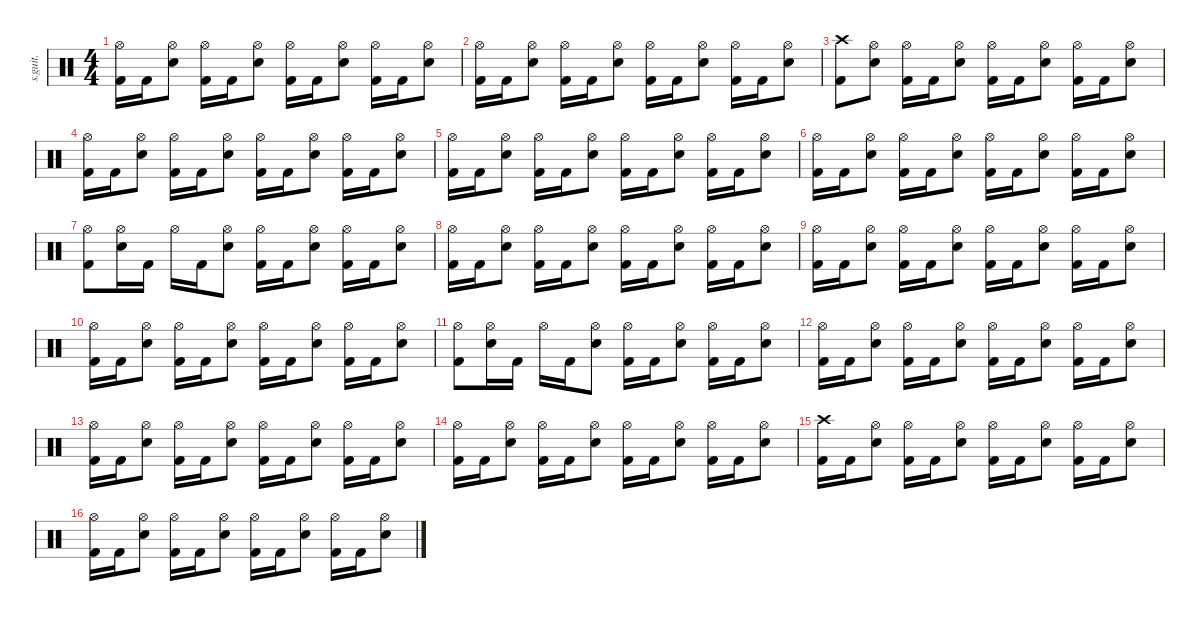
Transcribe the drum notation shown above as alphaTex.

\defaultSystemsLayout 4
\hideDynamics
\bracketExtendMode nobrackets
\track ("" "s.guit.") {instrument percussion}
\staff {score}
\articulation defaults
\ts (4 4)
\tempo (160 hide)
\clef neutral
\ks c
("Hi-Hat (open)" "Kick (hit) 2").16{dy f} "Kick (hit) 2".16 ("Hi-Hat (open)" "Snare (hit) 2").8 ("Hi-Hat (open)" "Kick (hit) 2").16 "Kick (hit) 2".16 ("Hi-Hat (open)" "Snare (hit) 2").8 ("Hi-Hat (open)" "Kick (hit) 2").16 "Kick (hit) 2".16 ("Hi-Hat (open)" "Snare (hit) 2").8 ("Hi-Hat (open)" "Kick (hit) 2").16 "Kick (hit) 2".16 ("Hi-Hat (open)" "Snare (hit) 2").8 |
("Hi-Hat (open)" "Kick (hit) 2").16 "Kick (hit) 2".16 ("Hi-Hat (open)" "Snare (hit) 2").8 ("Hi-Hat (open)" "Kick (hit) 2").16 "Kick (hit) 2".16 ("Hi-Hat (open)" "Snare (hit) 2").8 ("Hi-Hat (open)" "Kick (hit) 2").16 "Kick (hit) 2".16 ("Hi-Hat (open)" "Snare (hit) 2").8 ("Hi-Hat (open)" "Kick (hit) 2").16 "Kick (hit) 2".16 ("Hi-Hat (open)" "Snare (hit) 2").8 |
("Crash high (hit)" "Kick (hit) 2").8 ("Hi-Hat (open)" "Snare (hit) 2").8 ("Hi-Hat (open)" "Kick (hit) 2").16 "Kick (hit) 2".16 ("Hi-Hat (open)" "Snare (hit) 2").8 ("Hi-Hat (open)" "Kick (hit) 2").16 "Kick (hit) 2".16 ("Hi-Hat (open)" "Snare (hit) 2").8 ("Hi-Hat (open)" "Kick (hit) 2").16 "Kick (hit) 2".16 ("Hi-Hat (open)" "Snare (hit) 2").8 |
("Hi-Hat (open)" "Kick (hit) 2").16 "Kick (hit) 2".16 ("Hi-Hat (open)" "Snare (hit) 2").8 ("Hi-Hat (open)" "Kick (hit) 2").16 "Kick (hit) 2".16 ("Hi-Hat (open)" "Snare (hit) 2").8 ("Hi-Hat (open)" "Kick (hit) 2").16 "Kick (hit) 2".16 ("Hi-Hat (open)" "Snare (hit) 2").8 ("Hi-Hat (open)" "Kick (hit) 2").16 "Kick (hit) 2".16 ("Hi-Hat (open)" "Snare (hit) 2").8 |
("Hi-Hat (open)" "Kick (hit) 2").16 "Kick (hit) 2".16 ("Hi-Hat (open)" "Snare (hit) 2").8 ("Hi-Hat (open)" "Kick (hit) 2").16 "Kick (hit) 2".16 ("Hi-Hat (open)" "Snare (hit) 2").8 ("Hi-Hat (open)" "Kick (hit) 2").16 "Kick (hit) 2".16 ("Hi-Hat (open)" "Snare (hit) 2").8 ("Hi-Hat (open)" "Kick (hit) 2").16 "Kick (hit) 2".16 ("Hi-Hat (open)" "Snare (hit) 2").8 |
("Hi-Hat (open)" "Kick (hit) 2").16 "Kick (hit) 2".16 ("Hi-Hat (open)" "Snare (hit) 2").8 ("Hi-Hat (open)" "Kick (hit) 2").16 "Kick (hit) 2".16 ("Hi-Hat (open)" "Snare (hit) 2").8 ("Hi-Hat (open)" "Kick (hit) 2").16 "Kick (hit) 2".16 ("Hi-Hat (open)" "Snare (hit) 2").8 ("Hi-Hat (open)" "Kick (hit) 2").16 "Kick (hit) 2".16 ("Hi-Hat (open)" "Snare (hit) 2").8 |
("Hi-Hat (open)" "Kick (hit) 2").8 ("Hi-Hat (open)" "Snare (hit) 2").16 "Kick (hit) 2".16 "Hi-Hat (open)".16 "Kick (hit) 2".16 ("Hi-Hat (open)" "Snare (hit) 2").8 ("Hi-Hat (open)" "Kick (hit) 2").16 "Kick (hit) 2".16 ("Hi-Hat (open)" "Snare (hit) 2").8 ("Hi-Hat (open)" "Kick (hit) 2").16 "Kick (hit) 2".16 ("Hi-Hat (open)" "Snare (hit) 2").8 |
("Hi-Hat (open)" "Kick (hit) 2").16 "Kick (hit) 2".16 ("Hi-Hat (open)" "Snare (hit) 2").8 ("Hi-Hat (open)" "Kick (hit) 2").16 "Kick (hit) 2".16 ("Hi-Hat (open)" "Snare (hit) 2").8 ("Hi-Hat (open)" "Kick (hit) 2").16 "Kick (hit) 2".16 ("Hi-Hat (open)" "Snare (hit) 2").8 ("Hi-Hat (open)" "Kick (hit) 2").16 "Kick (hit) 2".16 ("Hi-Hat (open)" "Snare (hit) 2").8 |
("Hi-Hat (open)" "Kick (hit) 2").16 "Kick (hit) 2".16 ("Hi-Hat (open)" "Snare (hit) 2").8 ("Hi-Hat (open)" "Kick (hit) 2").16 "Kick (hit) 2".16 ("Hi-Hat (open)" "Snare (hit) 2").8 ("Hi-Hat (open)" "Kick (hit) 2").16 "Kick (hit) 2".16 ("Hi-Hat (open)" "Snare (hit) 2").8 ("Hi-Hat (open)" "Kick (hit) 2").16 "Kick (hit) 2".16 ("Hi-Hat (open)" "Snare (hit) 2").8 |
("Hi-Hat (open)" "Kick (hit) 2").16 "Kick (hit) 2".16 ("Hi-Hat (open)" "Snare (hit) 2").8 ("Hi-Hat (open)" "Kick (hit) 2").16 "Kick (hit) 2".16 ("Hi-Hat (open)" "Snare (hit) 2").8 ("Hi-Hat (open)" "Kick (hit) 2").16 "Kick (hit) 2".16 ("Hi-Hat (open)" "Snare (hit) 2").8 ("Hi-Hat (open)" "Kick (hit) 2").16 "Kick (hit) 2".16 ("Hi-Hat (open)" "Snare (hit) 2").8 |
("Hi-Hat (open)" "Kick (hit) 2").8 ("Hi-Hat (open)" "Snare (hit) 2").16 "Kick (hit) 2".16 "Hi-Hat (open)".16 "Kick (hit) 2".16 ("Hi-Hat (open)" "Snare (hit) 2").8 ("Hi-Hat (open)" "Kick (hit) 2").16 "Kick (hit) 2".16 ("Hi-Hat (open)" "Snare (hit) 2").8 ("Hi-Hat (open)" "Kick (hit) 2").16 "Kick (hit) 2".16 ("Hi-Hat (open)" "Snare (hit) 2").8 |
("Hi-Hat (open)" "Kick (hit) 2").16 "Kick (hit) 2".16 ("Hi-Hat (open)" "Snare (hit) 2").8 ("Hi-Hat (open)" "Kick (hit) 2").16 "Kick (hit) 2".16 ("Hi-Hat (open)" "Snare (hit) 2").8 ("Hi-Hat (open)" "Kick (hit) 2").16 "Kick (hit) 2".16 ("Hi-Hat (open)" "Snare (hit) 2").8 ("Hi-Hat (open)" "Kick (hit) 2").16 "Kick (hit) 2".16 ("Hi-Hat (open)" "Snare (hit) 2").8 |
("Hi-Hat (open)" "Kick (hit) 2").16 "Kick (hit) 2".16 ("Hi-Hat (open)" "Snare (hit) 2").8 ("Hi-Hat (open)" "Kick (hit) 2").16 "Kick (hit) 2".16 ("Hi-Hat (open)" "Snare (hit) 2").8 ("Hi-Hat (open)" "Kick (hit) 2").16 "Kick (hit) 2".16 ("Hi-Hat (open)" "Snare (hit) 2").8 ("Hi-Hat (open)" "Kick (hit) 2").16 "Kick (hit) 2".16 ("Hi-Hat (open)" "Snare (hit) 2").8 |
("Hi-Hat (open)" "Kick (hit) 2").16 "Kick (hit) 2".16 ("Hi-Hat (open)" "Snare (hit) 2").8 ("Hi-Hat (open)" "Kick (hit) 2").16 "Kick (hit) 2".16 ("Hi-Hat (open)" "Snare (hit) 2").8 ("Hi-Hat (open)" "Kick (hit) 2").16 "Kick (hit) 2".16 ("Hi-Hat (open)" "Snare (hit) 2").8 ("Hi-Hat (open)" "Kick (hit) 2").16 "Kick (hit) 2".16 ("Hi-Hat (open)" "Snare (hit) 2").8 |
("Crash high (hit)" "Kick (hit) 2").16 "Kick (hit) 2".16 ("Hi-Hat (open)" "Snare (hit) 2").8 ("Hi-Hat (open)" "Kick (hit) 2").16 "Kick (hit) 2".16 ("Hi-Hat (open)" "Snare (hit) 2").8 ("Hi-Hat (open)" "Kick (hit) 2").16 "Kick (hit) 2".16 ("Hi-Hat (open)" "Snare (hit) 2").8 ("Hi-Hat (open)" "Kick (hit) 2").16 "Kick (hit) 2".16 ("Hi-Hat (open)" "Snare (hit) 2").8 |
("Hi-Hat (open)" "Kick (hit) 2").16 "Kick (hit) 2".16 ("Hi-Hat (open)" "Snare (hit) 2").8 ("Hi-Hat (open)" "Kick (hit) 2").16 "Kick (hit) 2".16 ("Hi-Hat (open)" "Snare (hit) 2").8 ("Hi-Hat (open)" "Kick (hit) 2").16 "Kick (hit) 2".16 ("Hi-Hat (open)" "Snare (hit) 2").8 ("Hi-Hat (open)" "Kick (hit) 2").16 "Kick (hit) 2".16 ("Hi-Hat (open)" "Snare (hit) 2").8
